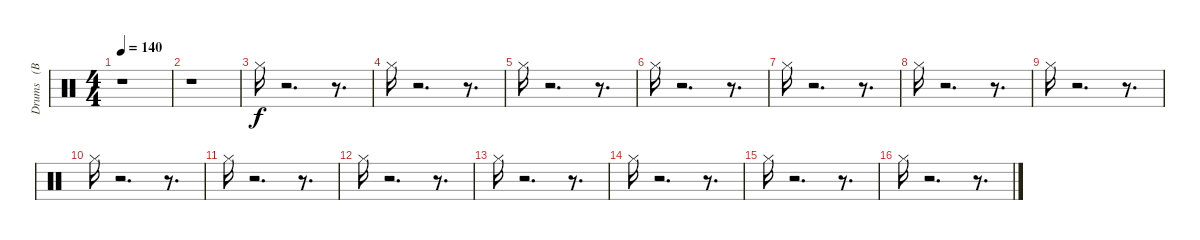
\track ("Drums   (BB)" "Drums   (B") {instrument percussion}
\staff {score}
\articulation defaults
\ts (4 4)
\tempo 140
\clef neutral
\ks c
r.1{dy f} |
r.1 |
"Hi-Hat (closed)".16 r.2{d} r.8{d} |
"Hi-Hat (closed)".16{volume 5} r.2{d} r.8{d} |
"Hi-Hat (closed)".16{volume 5} r.2{d} r.8{d} |
"Hi-Hat (closed)".16 r.2{d} r.8{d} |
"Hi-Hat (closed)".16 r.2{d} r.8{d} |
"Hi-Hat (closed)".16 r.2{d} r.8{d} |
"Hi-Hat (closed)".16 r.2{d} r.8{d} |
"Hi-Hat (closed)".16 r.2{d} r.8{d} |
"Hi-Hat (closed)".16 r.2{d} r.8{d} |
"Hi-Hat (closed)".16 r.2{d} r.8{d} |
"Hi-Hat (closed)".16 r.2{d} r.8{d} |
"Hi-Hat (closed)".16 r.2{d} r.8{d} |
"Hi-Hat (closed)".16 r.2{d} r.8{d} |
"Hi-Hat (closed)".16 r.2{d} r.8{d}
